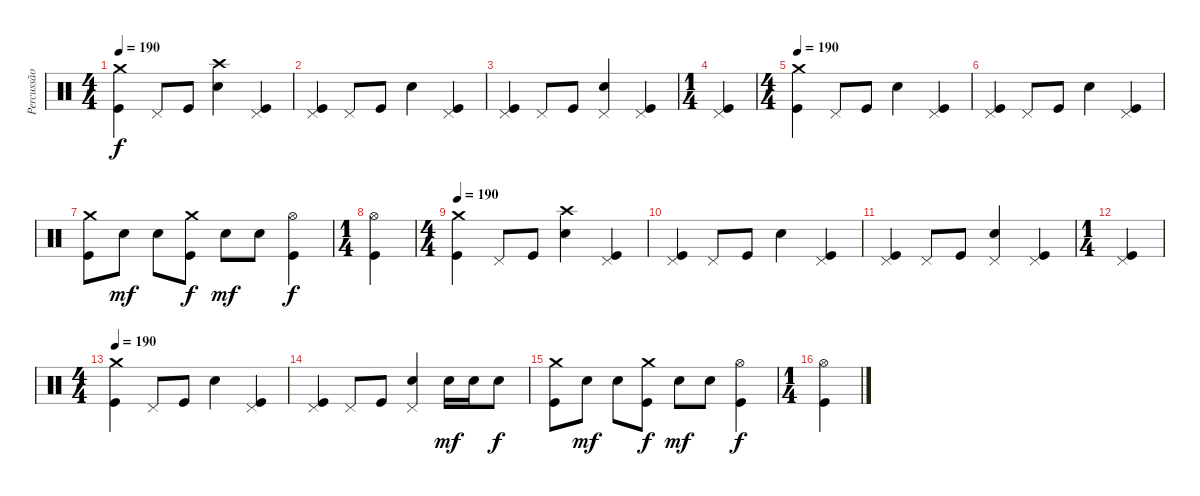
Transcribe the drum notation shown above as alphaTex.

\track ("Percussão" "Percussão") {instrument percussion}
\staff {score}
\articulation defaults
\ts (4 4)
\tempo 190
\clef neutral
\ks c
("Kick (hit)" "Crash medium (hit)").4{dy f} "Pedal Hi-Hat (hit)".8 "Kick (hit)".8 ("Electric Snare (hit)" "Crash high (hit)").4 ("Kick (hit)" "Pedal Hi-Hat (hit)").4 |
("Kick (hit)" "Pedal Hi-Hat (hit)").4 "Pedal Hi-Hat (hit)".8 "Kick (hit)".8 "Electric Snare (hit)".4 ("Kick (hit)" "Pedal Hi-Hat (hit)").4 |
("Kick (hit)" "Pedal Hi-Hat (hit)").4 "Pedal Hi-Hat (hit)".8 "Kick (hit)".8 ("Electric Snare (hit)" "Pedal Hi-Hat (hit)").4 ("Kick (hit)" "Pedal Hi-Hat (hit)").4 |
\ts (1 4)
("Kick (hit)" "Pedal Hi-Hat (hit)").4 |
\ts (4 4)
\tempo 190
("Kick (hit)" "Crash medium (hit)").4 "Pedal Hi-Hat (hit)".8 "Kick (hit)".8 "Electric Snare (hit)".4 ("Kick (hit)" "Pedal Hi-Hat (hit)").4 |
("Kick (hit)" "Pedal Hi-Hat (hit)").4 "Pedal Hi-Hat (hit)".8 "Kick (hit)".8 "Electric Snare (hit)".4 ("Kick (hit)" "Pedal Hi-Hat (hit)").4 |
("Kick (hit)" "Crash medium (hit)").8 "Electric Snare (hit)".8{dy mf} "Electric Snare (hit)".8 ("Kick (hit)" "Crash medium (hit)").8{dy f} "Electric Snare (hit)".8{dy mf} "Electric Snare (hit)".8 ("Kick (hit)" "Hi-Hat (open)").4{dy f} |
\ts (1 4)
("Kick (hit)" "Hi-Hat (open)").4 |
\ts (4 4)
\tempo 190
("Kick (hit)" "Crash medium (hit)").4 "Pedal Hi-Hat (hit)".8 "Kick (hit)".8 ("Electric Snare (hit)" "Crash high (hit)").4 ("Kick (hit)" "Pedal Hi-Hat (hit)").4 |
("Kick (hit)" "Pedal Hi-Hat (hit)").4 "Pedal Hi-Hat (hit)".8 "Kick (hit)".8 "Electric Snare (hit)".4 ("Kick (hit)" "Pedal Hi-Hat (hit)").4 |
("Kick (hit)" "Pedal Hi-Hat (hit)").4 "Pedal Hi-Hat (hit)".8 "Kick (hit)".8 ("Electric Snare (hit)" "Pedal Hi-Hat (hit)").4 ("Kick (hit)" "Pedal Hi-Hat (hit)").4 |
\ts (1 4)
("Kick (hit)" "Pedal Hi-Hat (hit)").4 |
\ts (4 4)
\tempo 190
("Kick (hit)" "Crash medium (hit)").4 "Pedal Hi-Hat (hit)".8 "Kick (hit)".8 "Electric Snare (hit)".4 ("Kick (hit)" "Pedal Hi-Hat (hit)").4 |
("Kick (hit)" "Pedal Hi-Hat (hit)").4 "Pedal Hi-Hat (hit)".8 "Kick (hit)".8 ("Electric Snare (hit)" "Pedal Hi-Hat (hit)").4 "Electric Snare (hit)".16{dy mf} "Electric Snare (hit)".16 "Electric Snare (hit)".8{dy f} |
("Kick (hit)" "Crash medium (hit)").8 "Electric Snare (hit)".8{dy mf} "Electric Snare (hit)".8 ("Kick (hit)" "Crash medium (hit)").8{dy f} "Electric Snare (hit)".8{dy mf} "Electric Snare (hit)".8 ("Kick (hit)" "Hi-Hat (open)").4{dy f} |
\ts (1 4)
("Kick (hit)" "Hi-Hat (open)").4
